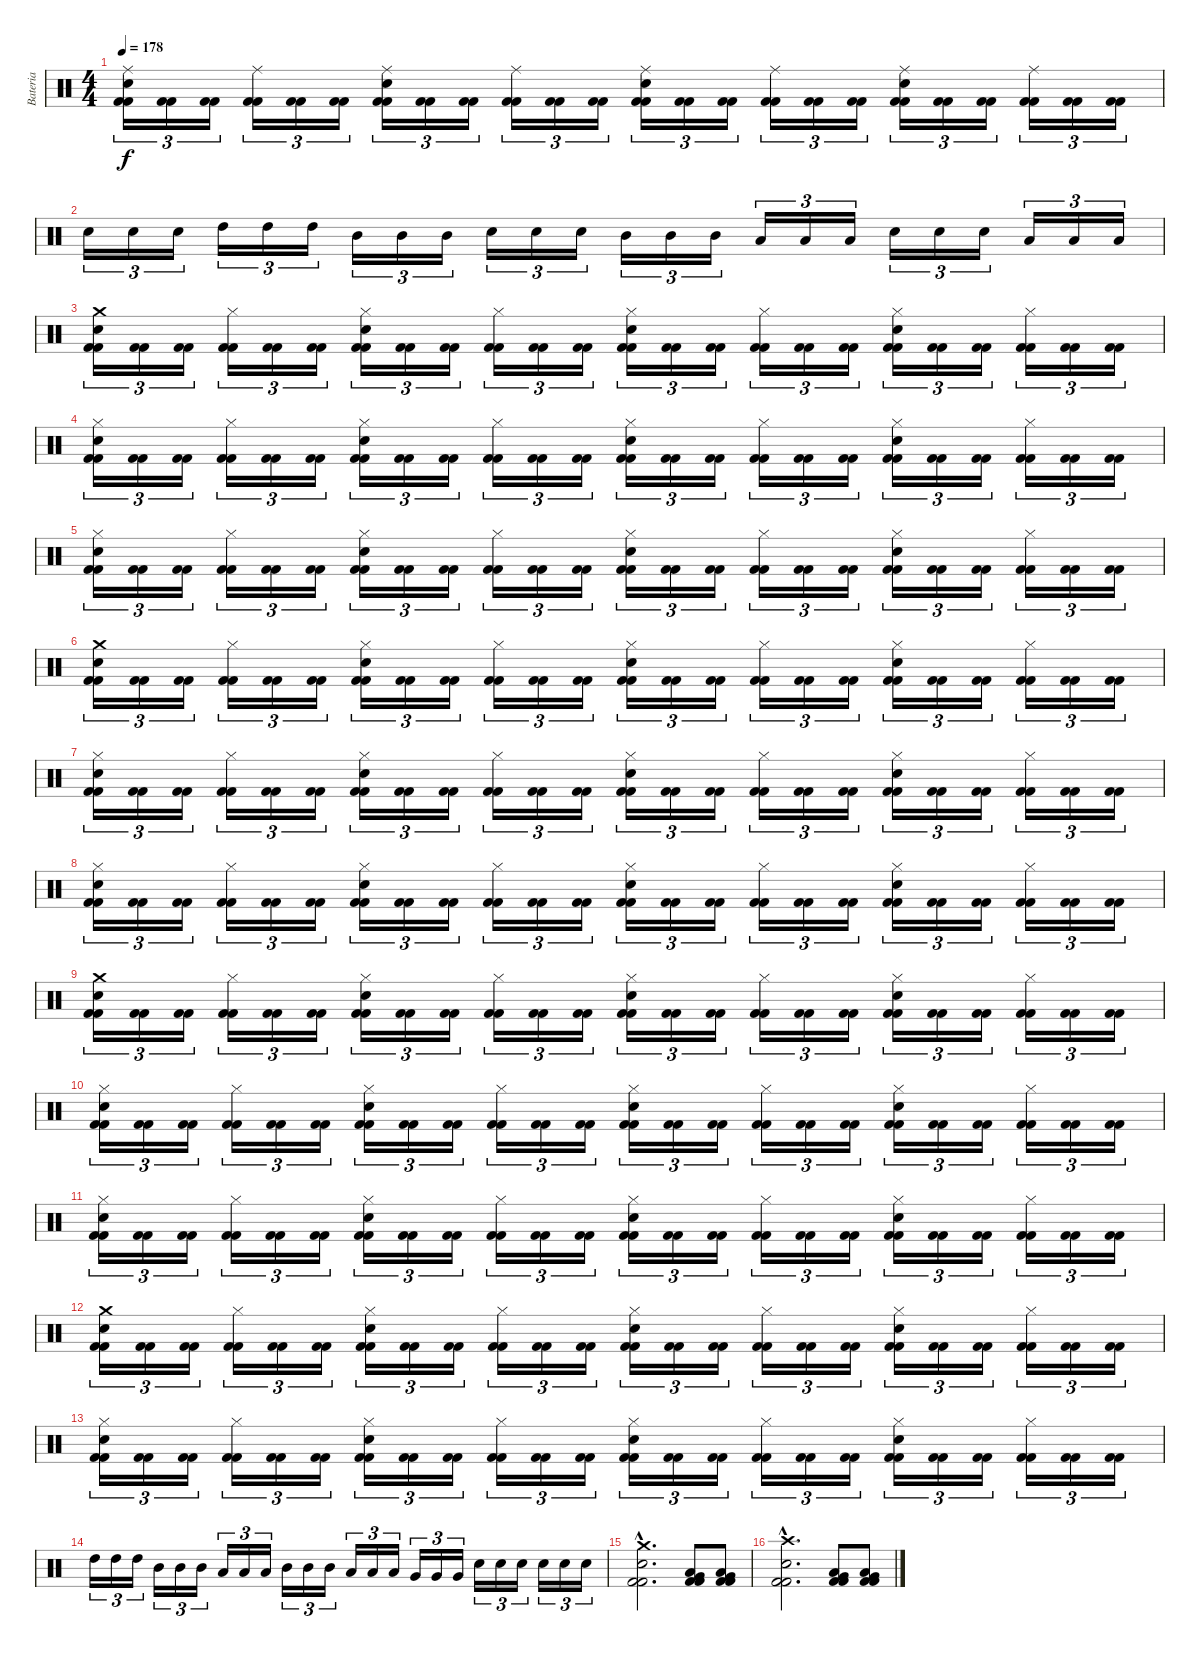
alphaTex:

\track ("Bateria" "Bateria") {instrument percussion}
\staff {score}
\articulation defaults
\ts (4 4)
\tempo 178
\clef neutral
\ks c
("Kick (hit) 2" "Kick (hit) 2" "Snare (hit) 2" "Ride (middle)").16{tu (3 2) dy f} ("Kick (hit) 2" "Kick (hit) 2").16{tu (3 2)} ("Kick (hit) 2" "Kick (hit) 2").16{tu (3 2)} ("Kick (hit) 2" "Kick (hit) 2" "Ride (middle)").16{tu (3 2)} ("Kick (hit) 2" "Kick (hit) 2").16{tu (3 2)} ("Kick (hit) 2" "Kick (hit) 2").16{tu (3 2)} ("Kick (hit) 2" "Kick (hit) 2" "Snare (hit) 2" "Ride (middle)").16{tu (3 2)} ("Kick (hit) 2" "Kick (hit) 2").16{tu (3 2)} ("Kick (hit) 2" "Kick (hit) 2").16{tu (3 2)} ("Kick (hit) 2" "Kick (hit) 2" "Ride (middle)").16{tu (3 2)} ("Kick (hit) 2" "Kick (hit) 2").16{tu (3 2)} ("Kick (hit) 2" "Kick (hit) 2").16{tu (3 2)} ("Kick (hit) 2" "Kick (hit) 2" "Snare (hit) 2" "Ride (middle)").16{tu (3 2)} ("Kick (hit) 2" "Kick (hit) 2").16{tu (3 2)} ("Kick (hit) 2" "Kick (hit) 2").16{tu (3 2)} ("Kick (hit) 2" "Kick (hit) 2" "Ride (middle)").16{tu (3 2)} ("Kick (hit) 2" "Kick (hit) 2").16{tu (3 2)} ("Kick (hit) 2" "Kick (hit) 2").16{tu (3 2)} ("Kick (hit) 2" "Kick (hit) 2" "Snare (hit) 2" "Ride (middle)").16{tu (3 2)} ("Kick (hit) 2" "Kick (hit) 2").16{tu (3 2)} ("Kick (hit) 2" "Kick (hit) 2").16{tu (3 2)} ("Kick (hit) 2" "Kick (hit) 2" "Ride (middle)").16{tu (3 2)} ("Kick (hit) 2" "Kick (hit) 2").16{tu (3 2)} ("Kick (hit) 2" "Kick (hit) 2").16{tu (3 2)} |
"Snare (hit) 2".16{tu (3 2)} "Snare (hit) 2".16{tu (3 2)} "Snare (hit) 2".16{tu (3 2)} "High Tom (hit)".16{tu (3 2)} "High Tom (hit)".16{tu (3 2)} "High Tom (hit)".16{tu (3 2)} "Mid Tom (hit)".16{tu (3 2)} "Mid Tom (hit)".16{tu (3 2)} "Mid Tom (hit)".16{tu (3 2)} "Snare (hit) 2".16{tu (3 2)} "Snare (hit) 2".16{tu (3 2)} "Snare (hit) 2".16{tu (3 2)} "Mid Tom (hit)".16{tu (3 2)} "Mid Tom (hit)".16{tu (3 2)} "Mid Tom (hit)".16{tu (3 2)} "Low Tom (hit)".16{tu (3 2)} "Low Tom (hit)".16{tu (3 2)} "Low Tom (hit)".16{tu (3 2)} "Snare (hit) 2".16{tu (3 2)} "Snare (hit) 2".16{tu (3 2)} "Snare (hit) 2".16{tu (3 2)} "Low Tom (hit)".16{tu (3 2)} "Low Tom (hit)".16{tu (3 2)} "Low Tom (hit)".16{tu (3 2)} |
("Kick (hit) 2" "Kick (hit) 2" "Snare (hit) 2" "Crash medium (hit)").16{tu (3 2)} ("Kick (hit) 2" "Kick (hit) 2").16{tu (3 2)} ("Kick (hit) 2" "Kick (hit) 2").16{tu (3 2)} ("Kick (hit) 2" "Kick (hit) 2" "Hi-Hat (closed)").16{tu (3 2)} ("Kick (hit) 2" "Kick (hit) 2").16{tu (3 2)} ("Kick (hit) 2" "Kick (hit) 2").16{tu (3 2)} ("Kick (hit) 2" "Kick (hit) 2" "Snare (hit) 2" "Hi-Hat (closed)").16{tu (3 2)} ("Kick (hit) 2" "Kick (hit) 2").16{tu (3 2)} ("Kick (hit) 2" "Kick (hit) 2").16{tu (3 2)} ("Kick (hit) 2" "Kick (hit) 2" "Hi-Hat (closed)").16{tu (3 2)} ("Kick (hit) 2" "Kick (hit) 2").16{tu (3 2)} ("Kick (hit) 2" "Kick (hit) 2").16{tu (3 2)} ("Kick (hit) 2" "Kick (hit) 2" "Snare (hit) 2" "Hi-Hat (closed)").16{tu (3 2)} ("Kick (hit) 2" "Kick (hit) 2").16{tu (3 2)} ("Kick (hit) 2" "Kick (hit) 2").16{tu (3 2)} ("Kick (hit) 2" "Kick (hit) 2" "Hi-Hat (closed)").16{tu (3 2)} ("Kick (hit) 2" "Kick (hit) 2").16{tu (3 2)} ("Kick (hit) 2" "Kick (hit) 2").16{tu (3 2)} ("Kick (hit) 2" "Kick (hit) 2" "Snare (hit) 2" "Hi-Hat (closed)").16{tu (3 2)} ("Kick (hit) 2" "Kick (hit) 2").16{tu (3 2)} ("Kick (hit) 2" "Kick (hit) 2").16{tu (3 2)} ("Kick (hit) 2" "Kick (hit) 2" "Hi-Hat (closed)").16{tu (3 2)} ("Kick (hit) 2" "Kick (hit) 2").16{tu (3 2)} ("Kick (hit) 2" "Kick (hit) 2").16{tu (3 2)} |
("Kick (hit) 2" "Kick (hit) 2" "Snare (hit) 2" "Hi-Hat (closed)").16{tu (3 2)} ("Kick (hit) 2" "Kick (hit) 2").16{tu (3 2)} ("Kick (hit) 2" "Kick (hit) 2").16{tu (3 2)} ("Kick (hit) 2" "Kick (hit) 2" "Hi-Hat (closed)").16{tu (3 2)} ("Kick (hit) 2" "Kick (hit) 2").16{tu (3 2)} ("Kick (hit) 2" "Kick (hit) 2").16{tu (3 2)} ("Kick (hit) 2" "Kick (hit) 2" "Snare (hit) 2" "Hi-Hat (closed)").16{tu (3 2)} ("Kick (hit) 2" "Kick (hit) 2").16{tu (3 2)} ("Kick (hit) 2" "Kick (hit) 2").16{tu (3 2)} ("Kick (hit) 2" "Kick (hit) 2" "Hi-Hat (closed)").16{tu (3 2)} ("Kick (hit) 2" "Kick (hit) 2").16{tu (3 2)} ("Kick (hit) 2" "Kick (hit) 2").16{tu (3 2)} ("Kick (hit) 2" "Kick (hit) 2" "Snare (hit) 2" "Hi-Hat (closed)").16{tu (3 2)} ("Kick (hit) 2" "Kick (hit) 2").16{tu (3 2)} ("Kick (hit) 2" "Kick (hit) 2").16{tu (3 2)} ("Kick (hit) 2" "Kick (hit) 2" "Hi-Hat (closed)").16{tu (3 2)} ("Kick (hit) 2" "Kick (hit) 2").16{tu (3 2)} ("Kick (hit) 2" "Kick (hit) 2").16{tu (3 2)} ("Kick (hit) 2" "Kick (hit) 2" "Snare (hit) 2" "Hi-Hat (closed)").16{tu (3 2)} ("Kick (hit) 2" "Kick (hit) 2").16{tu (3 2)} ("Kick (hit) 2" "Kick (hit) 2").16{tu (3 2)} ("Kick (hit) 2" "Kick (hit) 2" "Hi-Hat (closed)").16{tu (3 2)} ("Kick (hit) 2" "Kick (hit) 2").16{tu (3 2)} ("Kick (hit) 2" "Kick (hit) 2").16{tu (3 2)} |
("Kick (hit) 2" "Kick (hit) 2" "Snare (hit) 2" "Hi-Hat (closed)").16{tu (3 2)} ("Kick (hit) 2" "Kick (hit) 2").16{tu (3 2)} ("Kick (hit) 2" "Kick (hit) 2").16{tu (3 2)} ("Kick (hit) 2" "Kick (hit) 2" "Hi-Hat (closed)").16{tu (3 2)} ("Kick (hit) 2" "Kick (hit) 2").16{tu (3 2)} ("Kick (hit) 2" "Kick (hit) 2").16{tu (3 2)} ("Kick (hit) 2" "Kick (hit) 2" "Snare (hit) 2" "Hi-Hat (closed)").16{tu (3 2)} ("Kick (hit) 2" "Kick (hit) 2").16{tu (3 2)} ("Kick (hit) 2" "Kick (hit) 2").16{tu (3 2)} ("Kick (hit) 2" "Kick (hit) 2" "Hi-Hat (closed)").16{tu (3 2)} ("Kick (hit) 2" "Kick (hit) 2").16{tu (3 2)} ("Kick (hit) 2" "Kick (hit) 2").16{tu (3 2)} ("Kick (hit) 2" "Kick (hit) 2" "Snare (hit) 2" "Hi-Hat (closed)").16{tu (3 2)} ("Kick (hit) 2" "Kick (hit) 2").16{tu (3 2)} ("Kick (hit) 2" "Kick (hit) 2").16{tu (3 2)} ("Kick (hit) 2" "Kick (hit) 2" "Hi-Hat (closed)").16{tu (3 2)} ("Kick (hit) 2" "Kick (hit) 2").16{tu (3 2)} ("Kick (hit) 2" "Kick (hit) 2").16{tu (3 2)} ("Kick (hit) 2" "Kick (hit) 2" "Snare (hit) 2" "Hi-Hat (closed)").16{tu (3 2)} ("Kick (hit) 2" "Kick (hit) 2").16{tu (3 2)} ("Kick (hit) 2" "Kick (hit) 2").16{tu (3 2)} ("Kick (hit) 2" "Kick (hit) 2" "Hi-Hat (closed)").16{tu (3 2)} ("Kick (hit) 2" "Kick (hit) 2").16{tu (3 2)} ("Kick (hit) 2" "Kick (hit) 2").16{tu (3 2)} |
("Kick (hit) 2" "Kick (hit) 2" "Snare (hit) 2" "Crash medium (hit)").16{tu (3 2)} ("Kick (hit) 2" "Kick (hit) 2").16{tu (3 2)} ("Kick (hit) 2" "Kick (hit) 2").16{tu (3 2)} ("Kick (hit) 2" "Kick (hit) 2" "Hi-Hat (closed)").16{tu (3 2)} ("Kick (hit) 2" "Kick (hit) 2").16{tu (3 2)} ("Kick (hit) 2" "Kick (hit) 2").16{tu (3 2)} ("Kick (hit) 2" "Kick (hit) 2" "Snare (hit) 2" "Hi-Hat (closed)").16{tu (3 2)} ("Kick (hit) 2" "Kick (hit) 2").16{tu (3 2)} ("Kick (hit) 2" "Kick (hit) 2").16{tu (3 2)} ("Kick (hit) 2" "Kick (hit) 2" "Hi-Hat (closed)").16{tu (3 2)} ("Kick (hit) 2" "Kick (hit) 2").16{tu (3 2)} ("Kick (hit) 2" "Kick (hit) 2").16{tu (3 2)} ("Kick (hit) 2" "Kick (hit) 2" "Snare (hit) 2" "Hi-Hat (closed)").16{tu (3 2)} ("Kick (hit) 2" "Kick (hit) 2").16{tu (3 2)} ("Kick (hit) 2" "Kick (hit) 2").16{tu (3 2)} ("Kick (hit) 2" "Kick (hit) 2" "Hi-Hat (closed)").16{tu (3 2)} ("Kick (hit) 2" "Kick (hit) 2").16{tu (3 2)} ("Kick (hit) 2" "Kick (hit) 2").16{tu (3 2)} ("Kick (hit) 2" "Kick (hit) 2" "Snare (hit) 2" "Hi-Hat (closed)").16{tu (3 2)} ("Kick (hit) 2" "Kick (hit) 2").16{tu (3 2)} ("Kick (hit) 2" "Kick (hit) 2").16{tu (3 2)} ("Kick (hit) 2" "Kick (hit) 2" "Hi-Hat (closed)").16{tu (3 2)} ("Kick (hit) 2" "Kick (hit) 2").16{tu (3 2)} ("Kick (hit) 2" "Kick (hit) 2").16{tu (3 2)} |
("Kick (hit) 2" "Kick (hit) 2" "Snare (hit) 2" "Hi-Hat (closed)").16{tu (3 2)} ("Kick (hit) 2" "Kick (hit) 2").16{tu (3 2)} ("Kick (hit) 2" "Kick (hit) 2").16{tu (3 2)} ("Kick (hit) 2" "Kick (hit) 2" "Hi-Hat (closed)").16{tu (3 2)} ("Kick (hit) 2" "Kick (hit) 2").16{tu (3 2)} ("Kick (hit) 2" "Kick (hit) 2").16{tu (3 2)} ("Kick (hit) 2" "Kick (hit) 2" "Snare (hit) 2" "Hi-Hat (closed)").16{tu (3 2)} ("Kick (hit) 2" "Kick (hit) 2").16{tu (3 2)} ("Kick (hit) 2" "Kick (hit) 2").16{tu (3 2)} ("Kick (hit) 2" "Kick (hit) 2" "Hi-Hat (closed)").16{tu (3 2)} ("Kick (hit) 2" "Kick (hit) 2").16{tu (3 2)} ("Kick (hit) 2" "Kick (hit) 2").16{tu (3 2)} ("Kick (hit) 2" "Kick (hit) 2" "Snare (hit) 2" "Hi-Hat (closed)").16{tu (3 2)} ("Kick (hit) 2" "Kick (hit) 2").16{tu (3 2)} ("Kick (hit) 2" "Kick (hit) 2").16{tu (3 2)} ("Kick (hit) 2" "Kick (hit) 2" "Hi-Hat (closed)").16{tu (3 2)} ("Kick (hit) 2" "Kick (hit) 2").16{tu (3 2)} ("Kick (hit) 2" "Kick (hit) 2").16{tu (3 2)} ("Kick (hit) 2" "Kick (hit) 2" "Snare (hit) 2" "Hi-Hat (closed)").16{tu (3 2)} ("Kick (hit) 2" "Kick (hit) 2").16{tu (3 2)} ("Kick (hit) 2" "Kick (hit) 2").16{tu (3 2)} ("Kick (hit) 2" "Kick (hit) 2" "Hi-Hat (closed)").16{tu (3 2)} ("Kick (hit) 2" "Kick (hit) 2").16{tu (3 2)} ("Kick (hit) 2" "Kick (hit) 2").16{tu (3 2)} |
("Kick (hit) 2" "Kick (hit) 2" "Snare (hit) 2" "Hi-Hat (closed)").16{tu (3 2)} ("Kick (hit) 2" "Kick (hit) 2").16{tu (3 2)} ("Kick (hit) 2" "Kick (hit) 2").16{tu (3 2)} ("Kick (hit) 2" "Kick (hit) 2" "Hi-Hat (closed)").16{tu (3 2)} ("Kick (hit) 2" "Kick (hit) 2").16{tu (3 2)} ("Kick (hit) 2" "Kick (hit) 2").16{tu (3 2)} ("Kick (hit) 2" "Kick (hit) 2" "Snare (hit) 2" "Hi-Hat (closed)").16{tu (3 2)} ("Kick (hit) 2" "Kick (hit) 2").16{tu (3 2)} ("Kick (hit) 2" "Kick (hit) 2").16{tu (3 2)} ("Kick (hit) 2" "Kick (hit) 2" "Hi-Hat (closed)").16{tu (3 2)} ("Kick (hit) 2" "Kick (hit) 2").16{tu (3 2)} ("Kick (hit) 2" "Kick (hit) 2").16{tu (3 2)} ("Kick (hit) 2" "Kick (hit) 2" "Snare (hit) 2" "Hi-Hat (closed)").16{tu (3 2)} ("Kick (hit) 2" "Kick (hit) 2").16{tu (3 2)} ("Kick (hit) 2" "Kick (hit) 2").16{tu (3 2)} ("Kick (hit) 2" "Kick (hit) 2" "Hi-Hat (closed)").16{tu (3 2)} ("Kick (hit) 2" "Kick (hit) 2").16{tu (3 2)} ("Kick (hit) 2" "Kick (hit) 2").16{tu (3 2)} ("Kick (hit) 2" "Kick (hit) 2" "Snare (hit) 2" "Hi-Hat (closed)").16{tu (3 2)} ("Kick (hit) 2" "Kick (hit) 2").16{tu (3 2)} ("Kick (hit) 2" "Kick (hit) 2").16{tu (3 2)} ("Kick (hit) 2" "Kick (hit) 2" "Hi-Hat (closed)").16{tu (3 2)} ("Kick (hit) 2" "Kick (hit) 2").16{tu (3 2)} ("Kick (hit) 2" "Kick (hit) 2").16{tu (3 2)} |
("Kick (hit) 2" "Kick (hit) 2" "Snare (hit) 2" "Crash medium (hit)").16{tu (3 2)} ("Kick (hit) 2" "Kick (hit) 2").16{tu (3 2)} ("Kick (hit) 2" "Kick (hit) 2").16{tu (3 2)} ("Kick (hit) 2" "Kick (hit) 2" "Hi-Hat (closed)").16{tu (3 2)} ("Kick (hit) 2" "Kick (hit) 2").16{tu (3 2)} ("Kick (hit) 2" "Kick (hit) 2").16{tu (3 2)} ("Kick (hit) 2" "Kick (hit) 2" "Snare (hit) 2" "Hi-Hat (closed)").16{tu (3 2)} ("Kick (hit) 2" "Kick (hit) 2").16{tu (3 2)} ("Kick (hit) 2" "Kick (hit) 2").16{tu (3 2)} ("Kick (hit) 2" "Kick (hit) 2" "Hi-Hat (closed)").16{tu (3 2)} ("Kick (hit) 2" "Kick (hit) 2").16{tu (3 2)} ("Kick (hit) 2" "Kick (hit) 2").16{tu (3 2)} ("Kick (hit) 2" "Kick (hit) 2" "Snare (hit) 2" "Hi-Hat (closed)").16{tu (3 2)} ("Kick (hit) 2" "Kick (hit) 2").16{tu (3 2)} ("Kick (hit) 2" "Kick (hit) 2").16{tu (3 2)} ("Kick (hit) 2" "Kick (hit) 2" "Hi-Hat (closed)").16{tu (3 2)} ("Kick (hit) 2" "Kick (hit) 2").16{tu (3 2)} ("Kick (hit) 2" "Kick (hit) 2").16{tu (3 2)} ("Kick (hit) 2" "Kick (hit) 2" "Snare (hit) 2" "Hi-Hat (closed)").16{tu (3 2)} ("Kick (hit) 2" "Kick (hit) 2").16{tu (3 2)} ("Kick (hit) 2" "Kick (hit) 2").16{tu (3 2)} ("Kick (hit) 2" "Kick (hit) 2" "Hi-Hat (closed)").16{tu (3 2)} ("Kick (hit) 2" "Kick (hit) 2").16{tu (3 2)} ("Kick (hit) 2" "Kick (hit) 2").16{tu (3 2)} |
("Kick (hit) 2" "Kick (hit) 2" "Snare (hit) 2" "Hi-Hat (closed)").16{tu (3 2)} ("Kick (hit) 2" "Kick (hit) 2").16{tu (3 2)} ("Kick (hit) 2" "Kick (hit) 2").16{tu (3 2)} ("Kick (hit) 2" "Kick (hit) 2" "Hi-Hat (closed)").16{tu (3 2)} ("Kick (hit) 2" "Kick (hit) 2").16{tu (3 2)} ("Kick (hit) 2" "Kick (hit) 2").16{tu (3 2)} ("Kick (hit) 2" "Kick (hit) 2" "Snare (hit) 2" "Hi-Hat (closed)").16{tu (3 2)} ("Kick (hit) 2" "Kick (hit) 2").16{tu (3 2)} ("Kick (hit) 2" "Kick (hit) 2").16{tu (3 2)} ("Kick (hit) 2" "Kick (hit) 2" "Hi-Hat (closed)").16{tu (3 2)} ("Kick (hit) 2" "Kick (hit) 2").16{tu (3 2)} ("Kick (hit) 2" "Kick (hit) 2").16{tu (3 2)} ("Kick (hit) 2" "Kick (hit) 2" "Snare (hit) 2" "Hi-Hat (closed)").16{tu (3 2)} ("Kick (hit) 2" "Kick (hit) 2").16{tu (3 2)} ("Kick (hit) 2" "Kick (hit) 2").16{tu (3 2)} ("Kick (hit) 2" "Kick (hit) 2" "Hi-Hat (closed)").16{tu (3 2)} ("Kick (hit) 2" "Kick (hit) 2").16{tu (3 2)} ("Kick (hit) 2" "Kick (hit) 2").16{tu (3 2)} ("Kick (hit) 2" "Kick (hit) 2" "Snare (hit) 2" "Hi-Hat (closed)").16{tu (3 2)} ("Kick (hit) 2" "Kick (hit) 2").16{tu (3 2)} ("Kick (hit) 2" "Kick (hit) 2").16{tu (3 2)} ("Kick (hit) 2" "Kick (hit) 2" "Hi-Hat (closed)").16{tu (3 2)} ("Kick (hit) 2" "Kick (hit) 2").16{tu (3 2)} ("Kick (hit) 2" "Kick (hit) 2").16{tu (3 2)} |
("Kick (hit) 2" "Kick (hit) 2" "Snare (hit) 2" "Hi-Hat (closed)").16{tu (3 2)} ("Kick (hit) 2" "Kick (hit) 2").16{tu (3 2)} ("Kick (hit) 2" "Kick (hit) 2").16{tu (3 2)} ("Kick (hit) 2" "Kick (hit) 2" "Hi-Hat (closed)").16{tu (3 2)} ("Kick (hit) 2" "Kick (hit) 2").16{tu (3 2)} ("Kick (hit) 2" "Kick (hit) 2").16{tu (3 2)} ("Kick (hit) 2" "Kick (hit) 2" "Snare (hit) 2" "Hi-Hat (closed)").16{tu (3 2)} ("Kick (hit) 2" "Kick (hit) 2").16{tu (3 2)} ("Kick (hit) 2" "Kick (hit) 2").16{tu (3 2)} ("Kick (hit) 2" "Kick (hit) 2" "Hi-Hat (closed)").16{tu (3 2)} ("Kick (hit) 2" "Kick (hit) 2").16{tu (3 2)} ("Kick (hit) 2" "Kick (hit) 2").16{tu (3 2)} ("Kick (hit) 2" "Kick (hit) 2" "Snare (hit) 2" "Hi-Hat (closed)").16{tu (3 2)} ("Kick (hit) 2" "Kick (hit) 2").16{tu (3 2)} ("Kick (hit) 2" "Kick (hit) 2").16{tu (3 2)} ("Kick (hit) 2" "Kick (hit) 2" "Hi-Hat (closed)").16{tu (3 2)} ("Kick (hit) 2" "Kick (hit) 2").16{tu (3 2)} ("Kick (hit) 2" "Kick (hit) 2").16{tu (3 2)} ("Kick (hit) 2" "Kick (hit) 2" "Snare (hit) 2" "Hi-Hat (closed)").16{tu (3 2)} ("Kick (hit) 2" "Kick (hit) 2").16{tu (3 2)} ("Kick (hit) 2" "Kick (hit) 2").16{tu (3 2)} ("Kick (hit) 2" "Kick (hit) 2" "Hi-Hat (closed)").16{tu (3 2)} ("Kick (hit) 2" "Kick (hit) 2").16{tu (3 2)} ("Kick (hit) 2" "Kick (hit) 2").16{tu (3 2)} |
("Kick (hit) 2" "Kick (hit) 2" "Snare (hit) 2" "Crash medium (hit)").16{tu (3 2)} ("Kick (hit) 2" "Kick (hit) 2").16{tu (3 2)} ("Kick (hit) 2" "Kick (hit) 2").16{tu (3 2)} ("Kick (hit) 2" "Kick (hit) 2" "Hi-Hat (closed)").16{tu (3 2)} ("Kick (hit) 2" "Kick (hit) 2").16{tu (3 2)} ("Kick (hit) 2" "Kick (hit) 2").16{tu (3 2)} ("Kick (hit) 2" "Kick (hit) 2" "Snare (hit) 2" "Hi-Hat (closed)").16{tu (3 2)} ("Kick (hit) 2" "Kick (hit) 2").16{tu (3 2)} ("Kick (hit) 2" "Kick (hit) 2").16{tu (3 2)} ("Kick (hit) 2" "Kick (hit) 2" "Hi-Hat (closed)").16{tu (3 2)} ("Kick (hit) 2" "Kick (hit) 2").16{tu (3 2)} ("Kick (hit) 2" "Kick (hit) 2").16{tu (3 2)} ("Kick (hit) 2" "Kick (hit) 2" "Snare (hit) 2" "Hi-Hat (closed)").16{tu (3 2)} ("Kick (hit) 2" "Kick (hit) 2").16{tu (3 2)} ("Kick (hit) 2" "Kick (hit) 2").16{tu (3 2)} ("Kick (hit) 2" "Kick (hit) 2" "Hi-Hat (closed)").16{tu (3 2)} ("Kick (hit) 2" "Kick (hit) 2").16{tu (3 2)} ("Kick (hit) 2" "Kick (hit) 2").16{tu (3 2)} ("Kick (hit) 2" "Kick (hit) 2" "Snare (hit) 2" "Hi-Hat (closed)").16{tu (3 2)} ("Kick (hit) 2" "Kick (hit) 2").16{tu (3 2)} ("Kick (hit) 2" "Kick (hit) 2").16{tu (3 2)} ("Kick (hit) 2" "Kick (hit) 2" "Hi-Hat (closed)").16{tu (3 2)} ("Kick (hit) 2" "Kick (hit) 2").16{tu (3 2)} ("Kick (hit) 2" "Kick (hit) 2").16{tu (3 2)} |
("Kick (hit) 2" "Kick (hit) 2" "Snare (hit) 2" "Hi-Hat (closed)").16{tu (3 2)} ("Kick (hit) 2" "Kick (hit) 2").16{tu (3 2)} ("Kick (hit) 2" "Kick (hit) 2").16{tu (3 2)} ("Kick (hit) 2" "Kick (hit) 2" "Hi-Hat (closed)").16{tu (3 2)} ("Kick (hit) 2" "Kick (hit) 2").16{tu (3 2)} ("Kick (hit) 2" "Kick (hit) 2").16{tu (3 2)} ("Kick (hit) 2" "Kick (hit) 2" "Snare (hit) 2" "Hi-Hat (closed)").16{tu (3 2)} ("Kick (hit) 2" "Kick (hit) 2").16{tu (3 2)} ("Kick (hit) 2" "Kick (hit) 2").16{tu (3 2)} ("Kick (hit) 2" "Kick (hit) 2" "Hi-Hat (closed)").16{tu (3 2)} ("Kick (hit) 2" "Kick (hit) 2").16{tu (3 2)} ("Kick (hit) 2" "Kick (hit) 2").16{tu (3 2)} ("Kick (hit) 2" "Kick (hit) 2" "Snare (hit) 2" "Hi-Hat (closed)").16{tu (3 2)} ("Kick (hit) 2" "Kick (hit) 2").16{tu (3 2)} ("Kick (hit) 2" "Kick (hit) 2").16{tu (3 2)} ("Kick (hit) 2" "Kick (hit) 2" "Hi-Hat (closed)").16{tu (3 2)} ("Kick (hit) 2" "Kick (hit) 2").16{tu (3 2)} ("Kick (hit) 2" "Kick (hit) 2").16{tu (3 2)} ("Kick (hit) 2" "Kick (hit) 2" "Snare (hit) 2" "Hi-Hat (closed)").16{tu (3 2)} ("Kick (hit) 2" "Kick (hit) 2").16{tu (3 2)} ("Kick (hit) 2" "Kick (hit) 2").16{tu (3 2)} ("Kick (hit) 2" "Kick (hit) 2" "Hi-Hat (closed)").16{tu (3 2)} ("Kick (hit) 2" "Kick (hit) 2").16{tu (3 2)} ("Kick (hit) 2" "Kick (hit) 2").16{tu (3 2)} |
"High Tom (hit)".16{tu (3 2)} "High Tom (hit)".16{tu (3 2)} "High Tom (hit)".16{tu (3 2)} "Mid Tom (hit)".16{tu (3 2)} "Mid Tom (hit)".16{tu (3 2)} "Mid Tom (hit)".16{tu (3 2)} "Low Tom (hit)".16{tu (3 2)} "Low Tom (hit)".16{tu (3 2)} "Low Tom (hit)".16{tu (3 2)} "Mid Tom (hit)".16{tu (3 2)} "Mid Tom (hit)".16{tu (3 2)} "Mid Tom (hit)".16{tu (3 2)} "Low Tom (hit)".16{tu (3 2)} "Low Tom (hit)".16{tu (3 2)} "Low Tom (hit)".16{tu (3 2)} "Very Low Tom (hit)".16{tu (3 2)} "Very Low Tom (hit)".16{tu (3 2)} "Very Low Tom (hit)".16{tu (3 2)} "Snare (hit) 2".16{tu (3 2)} "Snare (hit) 2".16{tu (3 2)} "Snare (hit) 2".16{tu (3 2)} "Snare (hit) 2".16{tu (3 2)} "Snare (hit) 2".16{tu (3 2)} "Snare (hit) 2".16{tu (3 2)} |
("Kick (hit) 2"{hac} "Kick (hit) 2"{hac} "Snare (hit) 2"{hac} "Crash medium (hit)"{hac}).2{d} ("Kick (hit) 2" "Kick (hit) 2" "Low Tom (hit)" "Very Low Tom (hit)").8 ("Kick (hit) 2" "Kick (hit) 2" "Low Tom (hit)" "Very Low Tom (hit)").8 |
("Kick (hit) 2"{hac} "Kick (hit) 2"{hac} "Snare (hit) 2"{hac} "Crash high (hit)"{hac}).2{d} ("Kick (hit) 2" "Kick (hit) 2" "Low Tom (hit)" "Very Low Tom (hit)").8 ("Kick (hit) 2" "Kick (hit) 2" "Low Tom (hit)" "Very Low Tom (hit)").8
